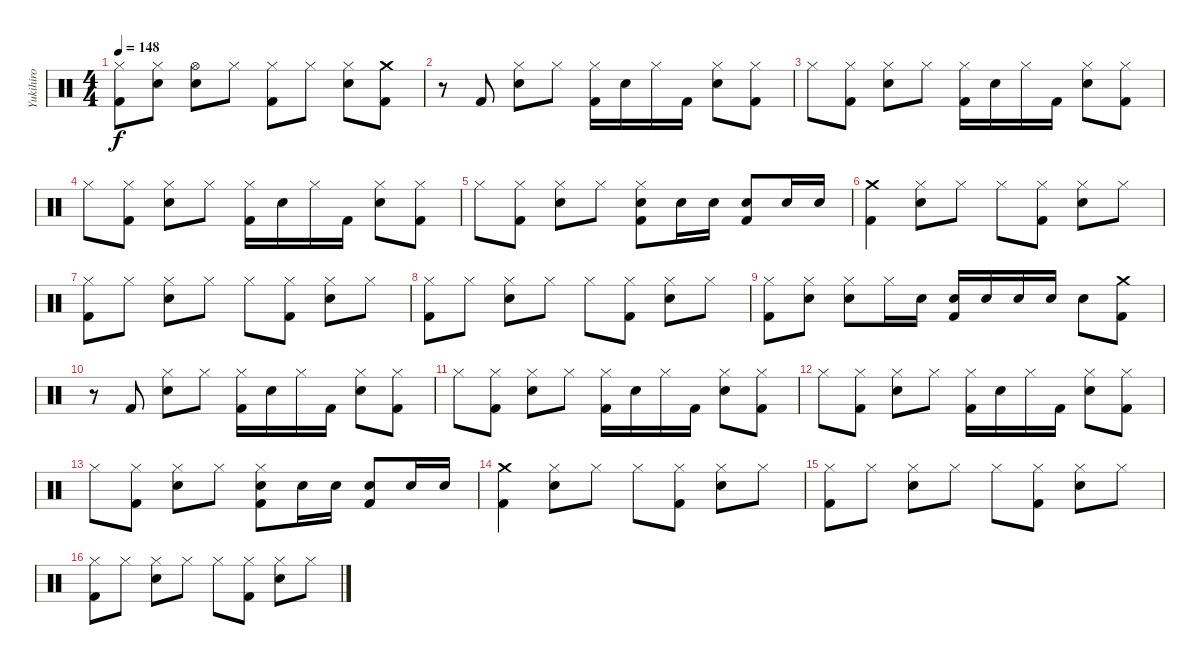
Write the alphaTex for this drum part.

\track ("Yukihiro" "Yukihiro") {instrument percussion}
\staff {score}
\articulation defaults
\ts (4 4)
\tempo 148
\clef neutral
\ks c
("Hi-Hat (closed)" "Kick (hit) 2").8{dy f} ("Hi-Hat (closed)" "Snare (hit) 2").8 ("Hi-Hat (open)" "Snare (hit) 2").8 "Hi-Hat (closed)".8 ("Hi-Hat (closed)" "Kick (hit) 2").8 "Hi-Hat (closed)".8 ("Hi-Hat (closed)" "Snare (hit) 2").8 ("Crash medium (hit)" "Kick (hit) 2").8 |
r.8 "Kick (hit) 2".8 ("Hi-Hat (closed)" "Snare (hit) 2").8 "Hi-Hat (closed)".8 ("Hi-Hat (closed)" "Kick (hit) 2").16 "Snare (hit) 2".16 "Hi-Hat (closed)".16 "Kick (hit) 2".16 ("Hi-Hat (closed)" "Snare (hit) 2").8 ("Hi-Hat (closed)" "Kick (hit) 2").8 |
"Hi-Hat (closed)".8 ("Hi-Hat (closed)" "Kick (hit) 2").8 ("Hi-Hat (closed)" "Snare (hit) 2").8 "Hi-Hat (closed)".8 ("Hi-Hat (closed)" "Kick (hit) 2").16 "Snare (hit) 2".16 "Hi-Hat (closed)".16 "Kick (hit) 2".16 ("Hi-Hat (closed)" "Snare (hit) 2").8 ("Hi-Hat (closed)" "Kick (hit) 2").8 |
"Hi-Hat (closed)".8 ("Hi-Hat (closed)" "Kick (hit) 2").8 ("Hi-Hat (closed)" "Snare (hit) 2").8 "Hi-Hat (closed)".8 ("Hi-Hat (closed)" "Kick (hit) 2").16 "Snare (hit) 2".16 "Hi-Hat (closed)".16 "Kick (hit) 2".16 ("Hi-Hat (closed)" "Snare (hit) 2").8 ("Hi-Hat (closed)" "Kick (hit) 2").8 |
"Hi-Hat (closed)".8 ("Hi-Hat (closed)" "Kick (hit) 2").8 ("Hi-Hat (closed)" "Snare (hit) 2").8 "Hi-Hat (closed)".8 ("Hi-Hat (closed)" "Snare (hit) 2" "Kick (hit) 2").8 "Snare (hit) 2".16 "Snare (hit) 2".16 ("Snare (hit) 2" "Kick (hit) 2").8 "Snare (hit) 2".16 "Snare (hit) 2".16 |
("Crash medium (hit)" "Kick (hit) 2").4 ("Hi-Hat (closed)" "Snare (hit) 2").8 "Hi-Hat (closed)".8 "Hi-Hat (closed)".8 ("Hi-Hat (closed)" "Kick (hit) 2").8 ("Hi-Hat (closed)" "Snare (hit) 2").8 "Hi-Hat (closed)".8 |
("Hi-Hat (closed)" "Kick (hit) 2").8 "Hi-Hat (closed)".8 ("Hi-Hat (closed)" "Snare (hit) 2").8 "Hi-Hat (closed)".8 "Hi-Hat (closed)".8 ("Hi-Hat (closed)" "Kick (hit) 2").8 ("Hi-Hat (closed)" "Snare (hit) 2").8 "Hi-Hat (closed)".8 |
("Hi-Hat (closed)" "Kick (hit) 2").8 "Hi-Hat (closed)".8 ("Hi-Hat (closed)" "Snare (hit) 2").8 "Hi-Hat (closed)".8 "Hi-Hat (closed)".8 ("Hi-Hat (closed)" "Kick (hit) 2").8 ("Hi-Hat (closed)" "Snare (hit) 2").8 "Hi-Hat (closed)".8 |
("Hi-Hat (closed)" "Kick (hit) 2").8 ("Hi-Hat (closed)" "Snare (hit) 2").8 ("Hi-Hat (closed)" "Snare (hit) 2").8 "Hi-Hat (closed)".16 "Snare (hit) 2".16 ("Snare (hit) 2" "Kick (hit) 2").16 "Snare (hit) 2".16 "Snare (hit) 2".16 "Snare (hit) 2".16 "Snare (hit) 2".8 ("Crash medium (hit)" "Kick (hit) 2").8 |
r.8 "Kick (hit) 2".8 ("Hi-Hat (closed)" "Snare (hit) 2").8 "Hi-Hat (closed)".8 ("Hi-Hat (closed)" "Kick (hit) 2").16 "Snare (hit) 2".16 "Hi-Hat (closed)".16 "Kick (hit) 2".16 ("Hi-Hat (closed)" "Snare (hit) 2").8 ("Hi-Hat (closed)" "Kick (hit) 2").8 |
"Hi-Hat (closed)".8 ("Hi-Hat (closed)" "Kick (hit) 2").8 ("Hi-Hat (closed)" "Snare (hit) 2").8 "Hi-Hat (closed)".8 ("Hi-Hat (closed)" "Kick (hit) 2").16 "Snare (hit) 2".16 "Hi-Hat (closed)".16 "Kick (hit) 2".16 ("Hi-Hat (closed)" "Snare (hit) 2").8 ("Hi-Hat (closed)" "Kick (hit) 2").8 |
"Hi-Hat (closed)".8 ("Hi-Hat (closed)" "Kick (hit) 2").8 ("Hi-Hat (closed)" "Snare (hit) 2").8 "Hi-Hat (closed)".8 ("Hi-Hat (closed)" "Kick (hit) 2").16 "Snare (hit) 2".16 "Hi-Hat (closed)".16 "Kick (hit) 2".16 ("Hi-Hat (closed)" "Snare (hit) 2").8 ("Hi-Hat (closed)" "Kick (hit) 2").8 |
"Hi-Hat (closed)".8 ("Hi-Hat (closed)" "Kick (hit) 2").8 ("Hi-Hat (closed)" "Snare (hit) 2").8 "Hi-Hat (closed)".8 ("Hi-Hat (closed)" "Snare (hit) 2" "Kick (hit) 2").8 "Snare (hit) 2".16 "Snare (hit) 2".16 ("Snare (hit) 2" "Kick (hit) 2").8 "Snare (hit) 2".16 "Snare (hit) 2".16 |
("Crash medium (hit)" "Kick (hit) 2").4 ("Hi-Hat (closed)" "Snare (hit) 2").8 "Hi-Hat (closed)".8 "Hi-Hat (closed)".8 ("Hi-Hat (closed)" "Kick (hit) 2").8 ("Hi-Hat (closed)" "Snare (hit) 2").8 "Hi-Hat (closed)".8 |
("Hi-Hat (closed)" "Kick (hit) 2").8 "Hi-Hat (closed)".8 ("Hi-Hat (closed)" "Snare (hit) 2").8 "Hi-Hat (closed)".8 "Hi-Hat (closed)".8 ("Hi-Hat (closed)" "Kick (hit) 2").8 ("Hi-Hat (closed)" "Snare (hit) 2").8 "Hi-Hat (closed)".8 |
("Hi-Hat (closed)" "Kick (hit) 2").8 "Hi-Hat (closed)".8 ("Hi-Hat (closed)" "Snare (hit) 2").8 "Hi-Hat (closed)".8 "Hi-Hat (closed)".8 ("Hi-Hat (closed)" "Kick (hit) 2").8 ("Hi-Hat (closed)" "Snare (hit) 2").8 "Hi-Hat (closed)".8
